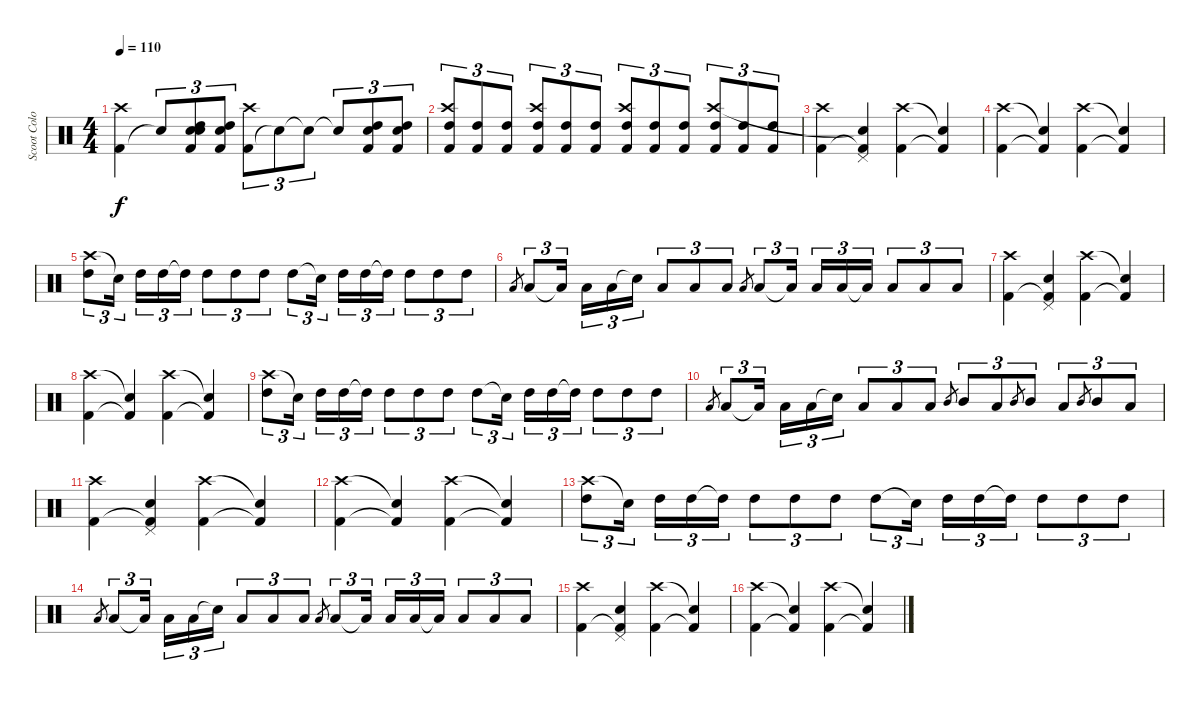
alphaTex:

\track ("Scoot Colombus" "Scoot Colo") {instrument percussion}
\staff {score}
\articulation defaults
\ts (4 4)
\tempo 110
\clef neutral
\ks c
("Kick (hit) 2" "Crash high (hit)").4{dy f} "Snare (hit)"{t}.8{tu (3 2)} ("Kick (hit) 2" "High Tom (hit)" "Snare (hit) 2" "Snare (hit)").8{tu (3 2)} ("Kick (hit) 2" "High Tom (hit)" "Snare (hit) 2").8{tu (3 2)} ("Kick (hit) 2" "Crash high (hit)").8{tu (3 2)} "Snare (hit)"{t}.8{tu (3 2)} "Snare (hit)"{t}.8{tu (3 2)} "Snare (hit)"{t}.8{tu (3 2)} ("Kick (hit) 2" "High Tom (hit)" "Snare (hit) 2").8{tu (3 2)} ("Kick (hit) 2" "High Tom (hit)" "Snare (hit) 2").8{tu (3 2)} |
("Kick (hit) 2" "High Tom (hit)" "Crash high (hit)").8{tu (3 2)} ("Kick (hit) 2" "High Tom (hit)").8{tu (3 2)} ("Kick (hit) 2" "High Tom (hit)").8{tu (3 2)} ("Kick (hit) 2" "High Tom (hit)" "Crash high (hit)").8{tu (3 2)} ("Kick (hit) 2" "High Tom (hit)").8{tu (3 2)} ("Kick (hit) 2" "High Tom (hit)").8{tu (3 2)} ("Kick (hit) 2" "High Tom (hit)" "Crash high (hit)").8{tu (3 2)} ("Kick (hit) 2" "High Tom (hit)").8{tu (3 2)} ("Kick (hit) 2" "High Tom (hit)").8{tu (3 2)} ("Kick (hit) 2" "High Tom (hit)" "Crash high (hit)").8{tu (3 2)} ("Kick (hit) 2" "High Tom (hit)").8{tu (3 2)} ("Kick (hit) 2" "High Tom (hit)").8{tu (3 2)} |
("Kick (hit) 2" "Crash high (hit)").4 ("Kick (hit) 2"{t} "Pedal Hi-Hat (hit)" "Snare (hit)"{t}).4 ("Kick (hit) 2" "Crash high (hit)").4 ("Kick (hit) 2"{t} "Snare (hit)"{t}).4 |
("Kick (hit) 2" "Crash high (hit)").4 ("Kick (hit) 2"{t} "Snare (hit)"{t}).4 ("Kick (hit) 2" "Crash high (hit)").4 ("Kick (hit) 2"{t} "Snare (hit)"{t}).4 |
("Crash high (hit)" "High Tom (hit)").8{tu (3 2)} "Snare (hit)"{t}.16{tu (3 2) beam splitsecondary} "High Tom (hit)".16{tu (3 2)} "High Tom (hit)".16{tu (3 2)} "High Tom (hit)"{t}.16{tu (3 2)} "High Tom (hit)".8{tu (3 2)} "High Tom (hit)".8{tu (3 2)} "High Tom (hit)".8{tu (3 2)} "High Tom (hit)".8{tu (3 2)} "Snare (hit)"{t}.16{tu (3 2) beam splitsecondary} "High Tom (hit)".16{tu (3 2)} "High Tom (hit)".16{tu (3 2)} "High Tom (hit)"{t}.16{tu (3 2)} "High Tom (hit)".8{tu (3 2)} "High Tom (hit)".8{tu (3 2)} "High Tom (hit)".8{tu (3 2)} |
"Low Tom (hit)".8{gr} "Low Tom (hit)".8{tu (3 2)} "Low Tom (hit)"{t}.16{tu (3 2) beam splitsecondary} "Low Tom (hit)".16{tu (3 2)} "Low Tom (hit)".16{tu (3 2)} "Snare (hit)"{t}.16{tu (3 2)} "Low Tom (hit)".8{tu (3 2)} "Low Tom (hit)".8{tu (3 2)} "Low Tom (hit)".8{tu (3 2)} "Low Tom (hit)".8{gr} "Low Tom (hit)".8{tu (3 2)} "Low Tom (hit)"{t}.16{tu (3 2) beam splitsecondary} "Low Tom (hit)".16{tu (3 2)} "Low Tom (hit)".16{tu (3 2)} "Low Tom (hit)"{t}.16{tu (3 2)} "Low Tom (hit)".8{tu (3 2)} "Low Tom (hit)".8{tu (3 2)} "Low Tom (hit)".8{tu (3 2)} |
("Kick (hit) 2" "Crash high (hit)").4 ("Kick (hit) 2"{t} "Pedal Hi-Hat (hit)" "Snare (hit)").4 ("Kick (hit) 2" "Crash high (hit)").4 ("Kick (hit) 2"{t} "Snare (hit)"{t}).4 |
("Kick (hit) 2" "Crash high (hit)").4 ("Kick (hit) 2"{t} "Snare (hit)"{t}).4 ("Kick (hit) 2" "Crash high (hit)").4 ("Kick (hit) 2"{t} "Snare (hit)"{t}).4 |
("Crash high (hit)" "High Tom (hit)").8{tu (3 2)} "Snare (hit)"{t}.16{tu (3 2) beam splitsecondary} "High Tom (hit)".16{tu (3 2)} "High Tom (hit)".16{tu (3 2)} "High Tom (hit)"{t}.16{tu (3 2)} "High Tom (hit)".8{tu (3 2)} "High Tom (hit)".8{tu (3 2)} "High Tom (hit)".8{tu (3 2)} "High Tom (hit)".8{tu (3 2)} "Snare (hit)"{t}.16{tu (3 2) beam splitsecondary} "High Tom (hit)".16{tu (3 2)} "High Tom (hit)".16{tu (3 2)} "High Tom (hit)"{t}.16{tu (3 2)} "High Tom (hit)".8{tu (3 2)} "High Tom (hit)".8{tu (3 2)} "High Tom (hit)".8{tu (3 2)} |
"Low Tom (hit)".8{gr} "Low Tom (hit)".8{tu (3 2)} "Low Tom (hit)"{t}.16{tu (3 2) beam splitsecondary} "Low Tom (hit)".16{tu (3 2)} "Low Tom (hit)".16{tu (3 2)} "Snare (hit)"{t}.16{tu (3 2)} "Low Tom (hit)".8{tu (3 2)} "Low Tom (hit)".8{tu (3 2)} "Low Tom (hit)".8{tu (3 2)} "Mid Tom (hit)".8{gr} "Mid Tom (hit)".8{tu (3 2)} "Low Tom (hit)".8{tu (3 2)} "Mid Tom (hit)".8{gr} "Mid Tom (hit)".8{tu (3 2)} "Low Tom (hit)".8{tu (3 2)} "Mid Tom (hit)".8{gr} "Mid Tom (hit)".8{tu (3 2)} "Low Tom (hit)".8{tu (3 2)} |
("Kick (hit) 2" "Crash high (hit)").4 ("Kick (hit) 2"{t} "Pedal Hi-Hat (hit)" "Snare (hit)").4 ("Kick (hit) 2" "Crash high (hit)").4 ("Kick (hit) 2"{t} "Snare (hit)"{t}).4 |
("Kick (hit) 2" "Crash high (hit)").4 ("Kick (hit) 2"{t} "Snare (hit)"{t}).4 ("Kick (hit) 2" "Crash high (hit)").4 ("Kick (hit) 2"{t} "Snare (hit)"{t}).4 |
("Crash high (hit)" "High Tom (hit)").8{tu (3 2)} "Snare (hit)"{t}.16{tu (3 2) beam splitsecondary} "High Tom (hit)".16{tu (3 2)} "High Tom (hit)".16{tu (3 2)} "High Tom (hit)"{t}.16{tu (3 2)} "High Tom (hit)".8{tu (3 2)} "High Tom (hit)".8{tu (3 2)} "High Tom (hit)".8{tu (3 2)} "High Tom (hit)".8{tu (3 2)} "Snare (hit)"{t}.16{tu (3 2) beam splitsecondary} "High Tom (hit)".16{tu (3 2)} "High Tom (hit)".16{tu (3 2)} "High Tom (hit)"{t}.16{tu (3 2)} "High Tom (hit)".8{tu (3 2)} "High Tom (hit)".8{tu (3 2)} "High Tom (hit)".8{tu (3 2)} |
"Low Tom (hit)".8{gr} "Low Tom (hit)".8{tu (3 2)} "Low Tom (hit)"{t}.16{tu (3 2) beam splitsecondary} "Low Tom (hit)".16{tu (3 2)} "Low Tom (hit)".16{tu (3 2)} "Snare (hit)"{t}.16{tu (3 2)} "Low Tom (hit)".8{tu (3 2)} "Low Tom (hit)".8{tu (3 2)} "Low Tom (hit)".8{tu (3 2)} "Low Tom (hit)".8{gr} "Low Tom (hit)".8{tu (3 2)} "Low Tom (hit)"{t}.16{tu (3 2) beam splitsecondary} "Low Tom (hit)".16{tu (3 2)} "Low Tom (hit)".16{tu (3 2)} "Low Tom (hit)"{t}.16{tu (3 2)} "Low Tom (hit)".8{tu (3 2)} "Low Tom (hit)".8{tu (3 2)} "Low Tom (hit)".8{tu (3 2)} |
("Kick (hit) 2" "Crash high (hit)").4 ("Kick (hit) 2"{t} "Pedal Hi-Hat (hit)" "Snare (hit)").4 ("Kick (hit) 2" "Crash high (hit)").4 ("Kick (hit) 2"{t} "Snare (hit)"{t}).4 |
("Kick (hit) 2" "Crash high (hit)").4 ("Kick (hit) 2"{t} "Snare (hit)"{t}).4 ("Kick (hit) 2" "Crash high (hit)").4 ("Kick (hit) 2"{t} "Snare (hit)"{t}).4
